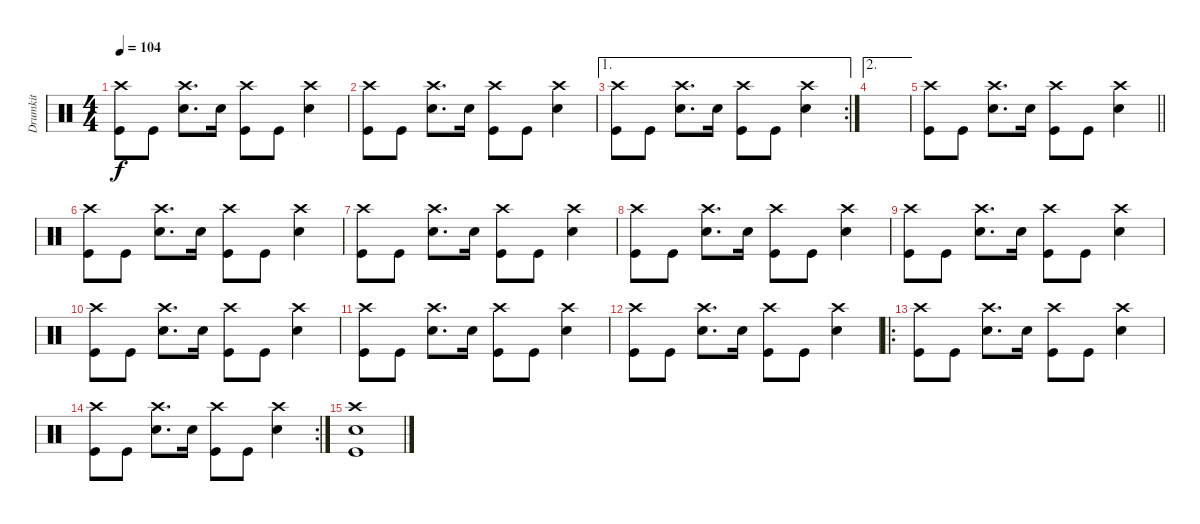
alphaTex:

\track ("Drumkit" "Drumkit") {instrument percussion}
\staff {score}
\articulation defaults
\ts (4 4)
\tempo 104
\clef neutral
\ks c
("Crash high (hit)" "Kick (hit)").8{dy f} "Kick (hit)".8 ("Crash high (hit)" "Snare (hit) 2").8{d} "Snare (hit) 2".16 ("Crash high (hit)" "Kick (hit)").8 "Kick (hit)".8 ("Crash high (hit)" "Snare (hit) 2").4 |
("Crash high (hit)" "Kick (hit)").8 "Kick (hit)".8 ("Crash high (hit)" "Snare (hit) 2").8{d} "Snare (hit) 2".16 ("Crash high (hit)" "Kick (hit)").8 "Kick (hit)".8 ("Crash high (hit)" "Snare (hit) 2").4 |
\ae 1
\rc 2
("Crash high (hit)" "Kick (hit)").8 "Kick (hit)".8 ("Crash high (hit)" "Snare (hit) 2").8{d} "Snare (hit) 2".16 ("Crash high (hit)" "Kick (hit)").8 "Kick (hit)".8 ("Crash high (hit)" "Snare (hit) 2").4 |
\ae 2
|
\barLineRight lightlight
("Crash high (hit)" "Kick (hit)").8 "Kick (hit)".8 ("Crash high (hit)" "Snare (hit) 2").8{d} "Snare (hit) 2".16 ("Crash high (hit)" "Kick (hit)").8 "Kick (hit)".8 ("Crash high (hit)" "Snare (hit) 2").4 |
("Crash high (hit)" "Kick (hit)").8 "Kick (hit)".8 ("Crash high (hit)" "Snare (hit) 2").8{d} "Snare (hit) 2".16 ("Crash high (hit)" "Kick (hit)").8 "Kick (hit)".8 ("Crash high (hit)" "Snare (hit) 2").4 |
("Crash high (hit)" "Kick (hit)").8 "Kick (hit)".8 ("Crash high (hit)" "Snare (hit) 2").8{d} "Snare (hit) 2".16 ("Crash high (hit)" "Kick (hit)").8 "Kick (hit)".8 ("Crash high (hit)" "Snare (hit) 2").4 |
("Crash high (hit)" "Kick (hit)").8 "Kick (hit)".8 ("Crash high (hit)" "Snare (hit) 2").8{d} "Snare (hit) 2".16 ("Crash high (hit)" "Kick (hit)").8 "Kick (hit)".8 ("Crash high (hit)" "Snare (hit) 2").4 |
("Crash high (hit)" "Kick (hit)").8 "Kick (hit)".8 ("Crash high (hit)" "Snare (hit) 2").8{d} "Snare (hit) 2".16 ("Crash high (hit)" "Kick (hit)").8 "Kick (hit)".8 ("Crash high (hit)" "Snare (hit) 2").4 |
("Crash high (hit)" "Kick (hit)").8 "Kick (hit)".8 ("Crash high (hit)" "Snare (hit) 2").8{d} "Snare (hit) 2".16 ("Crash high (hit)" "Kick (hit)").8 "Kick (hit)".8 ("Crash high (hit)" "Snare (hit) 2").4 |
("Crash high (hit)" "Kick (hit)").8 "Kick (hit)".8 ("Crash high (hit)" "Snare (hit) 2").8{d} "Snare (hit) 2".16 ("Crash high (hit)" "Kick (hit)").8 "Kick (hit)".8 ("Crash high (hit)" "Snare (hit) 2").4 |
("Crash high (hit)" "Kick (hit)").8 "Kick (hit)".8 ("Crash high (hit)" "Snare (hit) 2").8{d} "Snare (hit) 2".16 ("Crash high (hit)" "Kick (hit)").8 "Kick (hit)".8 ("Crash high (hit)" "Snare (hit) 2").4 |
\ro
("Crash high (hit)" "Kick (hit)").8 "Kick (hit)".8 ("Crash high (hit)" "Snare (hit) 2").8{d} "Snare (hit) 2".16 ("Crash high (hit)" "Kick (hit)").8 "Kick (hit)".8 ("Crash high (hit)" "Snare (hit) 2").4 |
\rc 2
("Crash high (hit)" "Kick (hit)").8 "Kick (hit)".8 ("Crash high (hit)" "Snare (hit) 2").8{d} "Snare (hit) 2".16 ("Crash high (hit)" "Kick (hit)").8 "Kick (hit)".8 ("Crash high (hit)" "Snare (hit) 2").4 |
("Crash high (hit)" "Snare (hit) 2" "Kick (hit)").1
